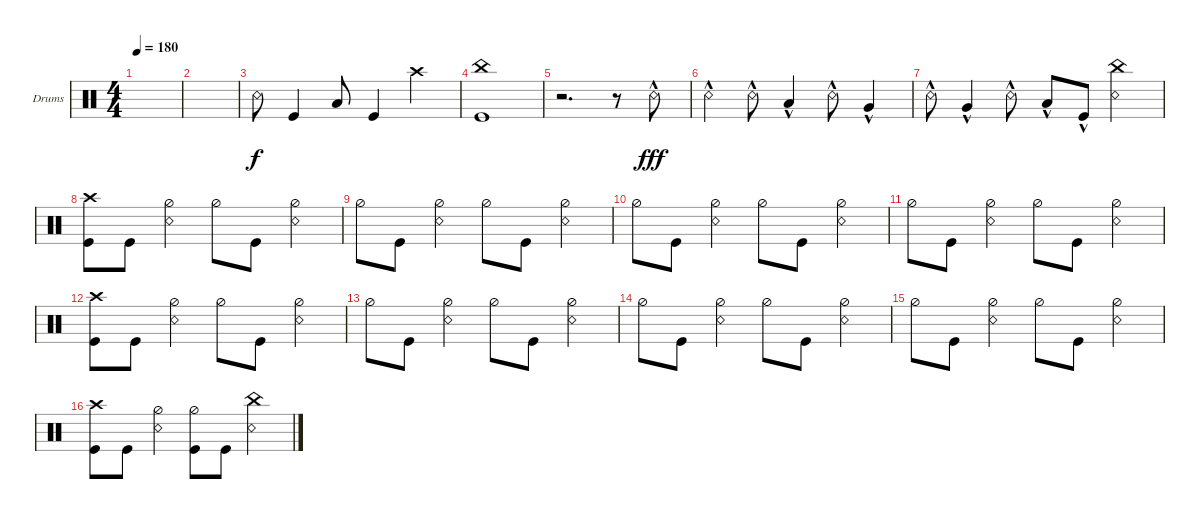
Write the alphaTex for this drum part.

\defaultSystemsLayout 4
\bracketExtendMode groupsimilarinstruments
\firstSystemTrackNameOrientation horizontal
\otherSystemsTrackNameOrientation horizontal
\track ("Drumkit" "Drums") {instrument percussion}
\staff {score}
\articulation defaults
\ts (4 4)
\tempo 180
\clef neutral
\ks c
|
|
"Snare (rim shot)".8 "Kick (hit)".4 "Low Tom (hit)".8 "Kick (hit)".4 "Crash high (hit)".4 |
("China (hit)" "Kick (hit)").1 |
r.2{d} r.8 "Snare (rim shot)"{hac}.8{dy fff} |
"Snare (rim shot)"{hac}.4 "Snare (rim shot)"{hac}.8 "Low Tom (hit)"{hac}.4 "Snare (rim shot)"{hac}.8 "Very Low Tom (hit)"{hac}.4 |
"Snare (rim shot)"{hac}.8 "Very Low Tom (hit)"{hac}.4 "Snare (rim shot)"{hac}.8 "Low Tom (hit)"{hac}.8 "Kick (hit)"{hac}.8 ("Snare (rim shot)" "China (hit)").4 |
("Crash high (hit)" "Kick (hit)").8 "Kick (hit)".8 ("Snare (rim shot)" "Hi-Hat (half)").4 "Hi-Hat (half)".8 "Kick (hit)".8 ("Snare (rim shot)" "Hi-Hat (half)").4 |
"Hi-Hat (half)".8 "Kick (hit)".8 ("Snare (rim shot)" "Hi-Hat (half)").4 "Hi-Hat (half)".8 "Kick (hit)".8 ("Snare (rim shot)" "Hi-Hat (half)").4 |
"Hi-Hat (half)".8 "Kick (hit)".8 ("Snare (rim shot)" "Hi-Hat (half)").4 "Hi-Hat (half)".8 "Kick (hit)".8 ("Snare (rim shot)" "Hi-Hat (half)").4 |
"Hi-Hat (half)".8 "Kick (hit)".8 ("Snare (rim shot)" "Hi-Hat (half)").4 "Hi-Hat (half)".8 "Kick (hit)".8 ("Snare (rim shot)" "Hi-Hat (half)").4 |
("Crash high (hit)" "Kick (hit)").8 "Kick (hit)".8 ("Snare (rim shot)" "Hi-Hat (half)").4 "Hi-Hat (half)".8 "Kick (hit)".8 ("Snare (rim shot)" "Hi-Hat (half)").4 |
"Hi-Hat (half)".8 "Kick (hit)".8 ("Snare (rim shot)" "Hi-Hat (half)").4 "Hi-Hat (half)".8 "Kick (hit)".8 ("Snare (rim shot)" "Hi-Hat (half)").4 |
"Hi-Hat (half)".8 "Kick (hit)".8 ("Snare (rim shot)" "Hi-Hat (half)").4 "Hi-Hat (half)".8 "Kick (hit)".8 ("Snare (rim shot)" "Hi-Hat (half)").4 |
"Hi-Hat (half)".8 "Kick (hit)".8 ("Snare (rim shot)" "Hi-Hat (half)").4 "Hi-Hat (half)".8 "Kick (hit)".8 ("Snare (rim shot)" "Hi-Hat (half)").4 |
("Kick (hit)" "Crash high (hit)").8 "Kick (hit)".8 ("Snare (rim shot)" "Hi-Hat (half)").4 ("Kick (hit)" "Hi-Hat (half)").8 "Kick (hit)".8 ("Snare (rim shot)" "China (hit)").4
